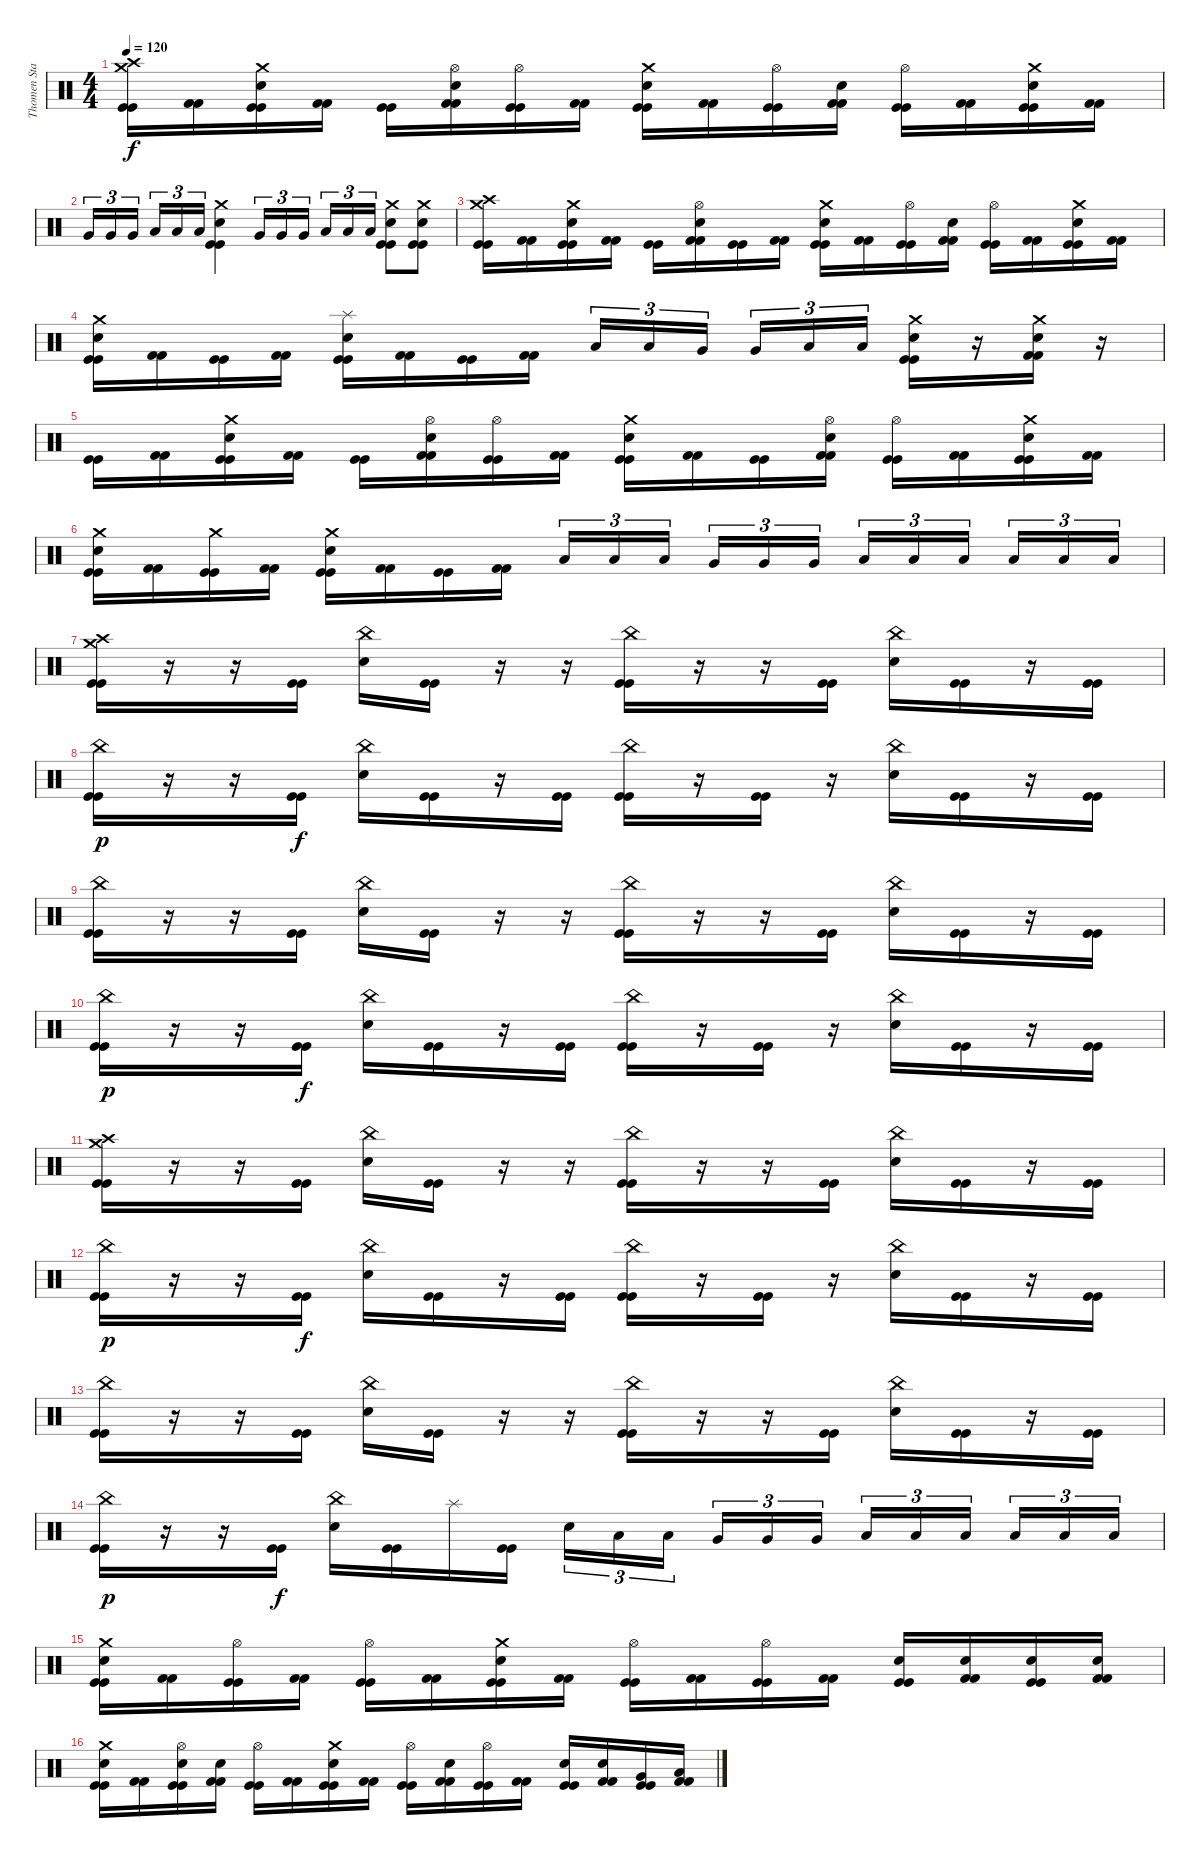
\track ("Thomen Stauch" "Thomen Sta") {instrument percussion}
\staff {score}
\articulation defaults
\ts (4 4)
\tempo 120
\clef neutral
\ks c
("Crash medium (hit)" "Crash high (hit)" "Kick (hit)" "Kick (hit)").16{dy f} ("Kick (hit) 2" "Kick (hit) 2").16 ("Crash medium (hit)" "Snare (hit) 2" "Kick (hit)" "Kick (hit)").16 ("Kick (hit) 2" "Kick (hit) 2").16 ("Kick (hit)" "Kick (hit)").16 ("Hi-Hat (open)" "Snare (hit) 2" "Kick (hit) 2" "Kick (hit) 2").16 ("Hi-Hat (open)" "Kick (hit)" "Kick (hit)").16 ("Kick (hit) 2" "Kick (hit) 2").16 ("Crash medium (hit)" "Snare (hit) 2" "Kick (hit)" "Kick (hit)").16 ("Kick (hit) 2" "Kick (hit) 2").16 ("Hi-Hat (open)" "Kick (hit)" "Kick (hit)").16 ("Snare (hit) 2" "Kick (hit) 2" "Kick (hit) 2").16 ("Hi-Hat (open)" "Kick (hit)" "Kick (hit)").16 ("Kick (hit) 2" "Kick (hit) 2").16 ("Crash medium (hit)" "Snare (hit) 2" "Kick (hit)" "Kick (hit)").16 ("Kick (hit) 2" "Kick (hit) 2").16 |
"Very Low Tom (hit)".16{tu (3 2)} "Very Low Tom (hit)".16{tu (3 2)} "Very Low Tom (hit)".16{tu (3 2)} "Low Floor Tom (hit)".16{tu (3 2)} "Low Floor Tom (hit)".16{tu (3 2)} "Low Floor Tom (hit)".16{tu (3 2)} ("Crash medium (hit)" "Snare (hit) 2" "Kick (hit)" "Kick (hit)").4 "Very Low Tom (hit)".16{tu (3 2)} "Very Low Tom (hit)".16{tu (3 2)} "Very Low Tom (hit)".16{tu (3 2)} "Low Floor Tom (hit)".16{tu (3 2)} "Low Floor Tom (hit)".16{tu (3 2)} "Low Floor Tom (hit)".16{tu (3 2)} ("Crash medium (hit)" "Snare (hit) 2" "Kick (hit)" "Kick (hit)").8 ("Crash medium (hit)" "Snare (hit) 2" "Kick (hit)" "Kick (hit)").8 |
("Crash medium (hit)" "Crash high (hit)" "Kick (hit)" "Kick (hit)").16 ("Kick (hit) 2" "Kick (hit) 2").16 ("Crash medium (hit)" "Snare (hit) 2" "Kick (hit)" "Kick (hit)").16 ("Kick (hit) 2" "Kick (hit) 2").16 ("Kick (hit)" "Kick (hit)").16 ("Hi-Hat (open)" "Snare (hit) 2" "Kick (hit) 2" "Kick (hit) 2").16 ("Kick (hit)" "Kick (hit)").16 ("Kick (hit) 2" "Kick (hit) 2").16 ("Crash medium (hit)" "Snare (hit) 2" "Kick (hit)" "Kick (hit)").16 ("Kick (hit) 2" "Kick (hit) 2").16 ("Hi-Hat (open)" "Kick (hit)" "Kick (hit)").16 ("Snare (hit) 2" "Kick (hit) 2" "Kick (hit) 2").16 ("Hi-Hat (open)" "Kick (hit)" "Kick (hit)").16 ("Kick (hit) 2" "Kick (hit) 2").16 ("Crash medium (hit)" "Snare (hit) 2" "Kick (hit)" "Kick (hit)").16 ("Kick (hit) 2" "Kick (hit) 2").16 |
("Crash medium (hit)" "Snare (hit) 2" "Kick (hit)" "Kick (hit)").16 ("Kick (hit) 2" "Kick (hit) 2").16 ("Kick (hit)" "Kick (hit)").16 ("Kick (hit) 2" "Kick (hit) 2").16 ("Splash (hit)" "Snare (hit) 2" "Kick (hit)" "Kick (hit)").16 ("Kick (hit) 2" "Kick (hit) 2").16 ("Kick (hit)" "Kick (hit)").16 ("Kick (hit) 2" "Kick (hit) 2").16 "Low Tom (hit)".16{tu (3 2)} "Low Tom (hit)".16{tu (3 2)} "Very Low Tom (hit)".16{tu (3 2)} "Very Low Tom (hit)".16{tu (3 2)} "Low Floor Tom (hit)".16{tu (3 2)} "Low Floor Tom (hit)".16{tu (3 2)} ("Crash medium (hit)" "Snare (hit) 2" "Kick (hit)" "Kick (hit)").16 r.16 ("Crash medium (hit)" "Snare (hit) 2" "Kick (hit) 2" "Kick (hit) 2").16 r.16 |
("Kick (hit)" "Kick (hit)").16 ("Kick (hit) 2" "Kick (hit) 2").16 ("Crash medium (hit)" "Snare (hit) 2" "Kick (hit)" "Kick (hit)").16 ("Kick (hit) 2" "Kick (hit) 2").16 ("Kick (hit)" "Kick (hit)").16 ("Hi-Hat (open)" "Snare (hit) 2" "Kick (hit) 2" "Kick (hit) 2").16 ("Hi-Hat (open)" "Kick (hit)" "Kick (hit)").16 ("Kick (hit) 2" "Kick (hit) 2").16 ("Crash medium (hit)" "Snare (hit) 2" "Kick (hit)" "Kick (hit)").16 ("Kick (hit) 2" "Kick (hit) 2").16 ("Kick (hit)" "Kick (hit)").16 ("Hi-Hat (open)" "Snare (hit) 2" "Kick (hit) 2" "Kick (hit) 2").16 ("Hi-Hat (open)" "Kick (hit)" "Kick (hit)").16 ("Kick (hit) 2" "Kick (hit) 2").16 ("Crash medium (hit)" "Snare (hit) 2" "Kick (hit)" "Kick (hit)").16 ("Kick (hit) 2" "Kick (hit) 2").16 |
("Crash medium (hit)" "Snare (hit) 2" "Kick (hit)" "Kick (hit)").16 ("Kick (hit) 2" "Kick (hit) 2").16 ("Crash medium (hit)" "Kick (hit)" "Kick (hit)").16 ("Kick (hit) 2" "Kick (hit) 2").16 ("Crash medium (hit)" "Snare (hit) 2" "Kick (hit)" "Kick (hit)").16 ("Kick (hit) 2" "Kick (hit) 2").16 ("Kick (hit)" "Kick (hit)").16 ("Kick (hit) 2" "Kick (hit) 2").16 "Low Tom (hit)".16{tu (3 2)} "Low Tom (hit)".16{tu (3 2)} "Low Tom (hit)".16{tu (3 2)} "Very Low Tom (hit)".16{tu (3 2)} "Very Low Tom (hit)".16{tu (3 2)} "Very Low Tom (hit)".16{tu (3 2)} "Low Floor Tom (hit)".16{tu (3 2)} "Low Floor Tom (hit)".16{tu (3 2)} "Low Floor Tom (hit)".16{tu (3 2)} "Low Floor Tom (hit)".16{tu (3 2)} "Low Floor Tom (hit)".16{tu (3 2)} "Low Floor Tom (hit)".16{tu (3 2)} |
("Crash medium (hit)" "Crash high (hit)" "Kick (hit)" "Kick (hit)").16 r.16 r.16 ("Kick (hit)" "Kick (hit)").16 ("China (hit)" "Snare (hit) 2").16 ("Kick (hit)" "Kick (hit)").16 r.16 r.16 ("China (hit)" "Kick (hit)" "Kick (hit)").16 r.16 r.16 ("Kick (hit)" "Kick (hit)").16 ("China (hit)" "Snare (hit) 2").16 ("Kick (hit)" "Kick (hit)").16 r.16 ("Kick (hit)" "Kick (hit)").16 |
("China (hit)" "Kick (hit)" "Kick (hit)").16{dy p} r.16 r.16 ("Kick (hit)" "Kick (hit)").16{dy f} ("China (hit)" "Snare (hit) 2").16 ("Kick (hit)" "Kick (hit)").16 r.16 ("Kick (hit)" "Kick (hit)").16 ("China (hit)" "Kick (hit)" "Kick (hit)").16 r.16 ("Kick (hit)" "Kick (hit)").16 r.16 ("China (hit)" "Snare (hit) 2").16 ("Kick (hit)" "Kick (hit)").16 r.16 ("Kick (hit)" "Kick (hit)").16 |
("China (hit)" "Kick (hit)" "Kick (hit)").16 r.16 r.16 ("Kick (hit)" "Kick (hit)").16 ("China (hit)" "Snare (hit) 2").16 ("Kick (hit)" "Kick (hit)").16 r.16 r.16 ("China (hit)" "Kick (hit)" "Kick (hit)").16 r.16 r.16 ("Kick (hit)" "Kick (hit)").16 ("China (hit)" "Snare (hit) 2").16 ("Kick (hit)" "Kick (hit)").16 r.16 ("Kick (hit)" "Kick (hit)").16 |
("China (hit)" "Kick (hit)" "Kick (hit)").16{dy p} r.16 r.16 ("Kick (hit)" "Kick (hit)").16{dy f} ("China (hit)" "Snare (hit) 2").16 ("Kick (hit)" "Kick (hit)").16 r.16 ("Kick (hit)" "Kick (hit)").16 ("China (hit)" "Kick (hit)" "Kick (hit)").16 r.16 ("Kick (hit)" "Kick (hit)").16 r.16 ("China (hit)" "Snare (hit) 2").16 ("Kick (hit)" "Kick (hit)").16 r.16 ("Kick (hit)" "Kick (hit)").16 |
("Crash medium (hit)" "Crash high (hit)" "Kick (hit)" "Kick (hit)").16 r.16 r.16 ("Kick (hit)" "Kick (hit)").16 ("China (hit)" "Snare (hit) 2").16 ("Kick (hit)" "Kick (hit)").16 r.16 r.16 ("China (hit)" "Kick (hit)" "Kick (hit)").16 r.16 r.16 ("Kick (hit)" "Kick (hit)").16 ("China (hit)" "Snare (hit) 2").16 ("Kick (hit)" "Kick (hit)").16 r.16 ("Kick (hit)" "Kick (hit)").16 |
("China (hit)" "Kick (hit)" "Kick (hit)").16{dy p} r.16 r.16 ("Kick (hit)" "Kick (hit)").16{dy f} ("China (hit)" "Snare (hit) 2").16 ("Kick (hit)" "Kick (hit)").16 r.16 ("Kick (hit)" "Kick (hit)").16 ("China (hit)" "Kick (hit)" "Kick (hit)").16 r.16 ("Kick (hit)" "Kick (hit)").16 r.16 ("China (hit)" "Snare (hit) 2").16 ("Kick (hit)" "Kick (hit)").16 r.16 ("Kick (hit)" "Kick (hit)").16 |
("China (hit)" "Kick (hit)" "Kick (hit)").16 r.16 r.16 ("Kick (hit)" "Kick (hit)").16 ("China (hit)" "Snare (hit) 2").16 ("Kick (hit)" "Kick (hit)").16 r.16 r.16 ("China (hit)" "Kick (hit)" "Kick (hit)").16 r.16 r.16 ("Kick (hit)" "Kick (hit)").16 ("China (hit)" "Snare (hit) 2").16 ("Kick (hit)" "Kick (hit)").16 r.16 ("Kick (hit)" "Kick (hit)").16 |
("China (hit)" "Kick (hit)" "Kick (hit)").16{dy p} r.16 r.16 ("Kick (hit)" "Kick (hit)").16{dy f} ("China (hit)" "Snare (hit) 2").16 ("Kick (hit)" "Kick (hit)").16 "Splash (hit)".16 ("Kick (hit)" "Kick (hit)").16 "Snare (hit) 2".16{tu (3 2)} "Low Tom (hit)".16{tu (3 2)} "Low Tom (hit)".16{tu (3 2)} "Very Low Tom (hit)".16{tu (3 2)} "Very Low Tom (hit)".16{tu (3 2)} "Very Low Tom (hit)".16{tu (3 2)} "Low Floor Tom (hit)".16{tu (3 2)} "Low Floor Tom (hit)".16{tu (3 2)} "Low Floor Tom (hit)".16{tu (3 2)} "Low Floor Tom (hit)".16{tu (3 2)} "Low Floor Tom (hit)".16{tu (3 2)} "Low Floor Tom (hit)".16{tu (3 2)} |
("Crash medium (hit)" "Snare (hit) 2" "Kick (hit)" "Kick (hit)").16 ("Kick (hit) 2" "Kick (hit) 2").16 ("Hi-Hat (open)" "Kick (hit)" "Kick (hit)").16 ("Kick (hit) 2" "Kick (hit) 2").16 ("Hi-Hat (open)" "Kick (hit)" "Kick (hit)").16 ("Kick (hit) 2" "Kick (hit) 2").16 ("Crash medium (hit)" "Snare (hit) 2" "Kick (hit)" "Kick (hit)").16 ("Kick (hit) 2" "Kick (hit) 2").16 ("Hi-Hat (open)" "Kick (hit)" "Kick (hit)").16 ("Kick (hit) 2" "Kick (hit) 2").16 ("Hi-Hat (open)" "Kick (hit)" "Kick (hit)").16 ("Kick (hit) 2" "Kick (hit) 2").16 ("Snare (hit) 2" "Kick (hit)" "Kick (hit)").16 ("Snare (hit) 2" "Kick (hit) 2" "Kick (hit) 2").16 ("Snare (hit) 2" "Kick (hit)" "Kick (hit)").16 ("Snare (hit) 2" "Kick (hit) 2" "Kick (hit) 2").16 |
("Crash medium (hit)" "Snare (hit) 2" "Kick (hit)" "Kick (hit)").16 ("Kick (hit) 2" "Kick (hit) 2").16 ("Hi-Hat (open)" "Snare (hit) 2" "Kick (hit)" "Kick (hit)").16 ("Snare (hit) 2" "Kick (hit) 2" "Kick (hit) 2").16 ("Hi-Hat (open)" "Kick (hit)" "Kick (hit)").16 ("Kick (hit) 2" "Kick (hit) 2").16 ("Crash medium (hit)" "Snare (hit) 2" "Kick (hit)" "Kick (hit)").16 ("Kick (hit) 2" "Kick (hit) 2").16 ("Hi-Hat (open)" "Kick (hit)" "Kick (hit)").16 ("Snare (hit) 2" "Kick (hit) 2" "Kick (hit) 2").16 ("Hi-Hat (open)" "Kick (hit)" "Kick (hit)").16 ("Kick (hit) 2" "Kick (hit) 2").16 ("Snare (hit) 2" "Kick (hit)" "Kick (hit)").16 ("Snare (hit) 2" "Kick (hit) 2" "Kick (hit) 2").16 ("Very Low Tom (hit)" "Kick (hit)" "Kick (hit)").16 ("Low Floor Tom (hit)" "Kick (hit) 2" "Kick (hit) 2").16
